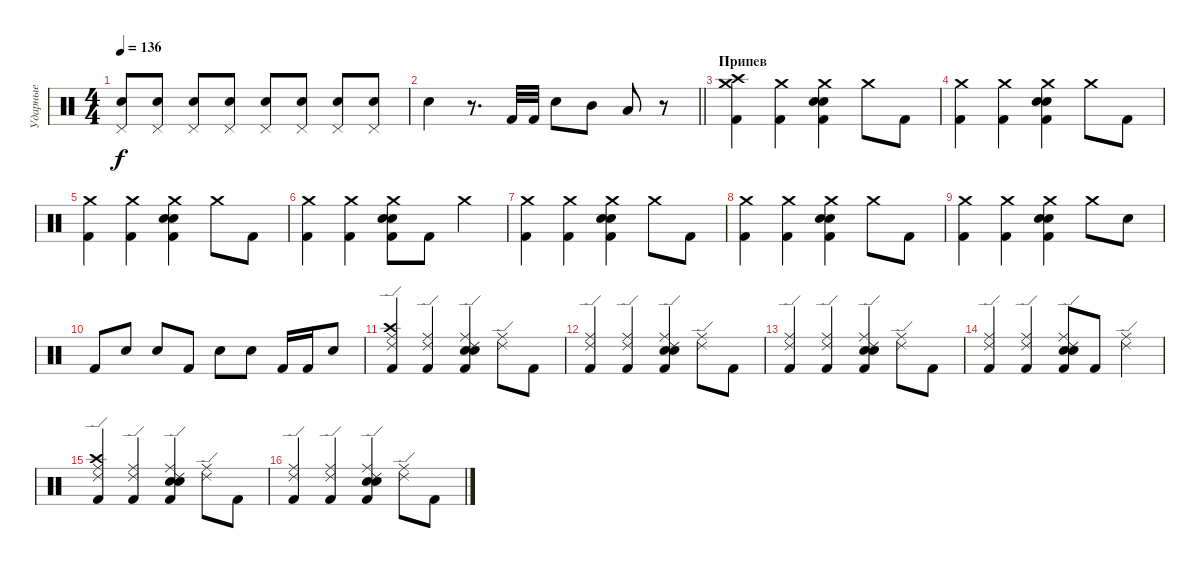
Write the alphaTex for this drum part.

\track ("Ударные" "Ударные") {instrument percussion}
\staff {score}
\articulation defaults
\ts (4 4)
\tempo 136
\clef neutral
\ks c
("Pedal Hi-Hat (hit)" "Electric Snare (hit)").8{dy f volume 16} ("Pedal Hi-Hat (hit)" "Electric Snare (hit)").8 ("Pedal Hi-Hat (hit)" "Electric Snare (hit)").8 ("Pedal Hi-Hat (hit)" "Electric Snare (hit)").8 ("Pedal Hi-Hat (hit)" "Electric Snare (hit)").8 ("Pedal Hi-Hat (hit)" "Electric Snare (hit)").8 ("Pedal Hi-Hat (hit)" "Electric Snare (hit)").8 ("Pedal Hi-Hat (hit)" "Electric Snare (hit)").8 |
\barLineRight lightlight "Electric Snare (hit)".4
r.8{d} "Kick (hit) 2".32 "Kick (hit) 2".32 "Snare (hit) 2".8 "Mid Tom (hit)".8 "Low Tom (hit)".8 r.8 |
\section ("" "Припев")
("Crash medium (hit)" "Crash high (hit)" "Kick (hit) 2").4 ("Crash medium (hit)" "Kick (hit) 2").4 ("Snare (hit) 2" "Crash medium (hit)" "Snare (hit) 2" "Kick (hit) 2").4 "Crash medium (hit)".8 "Kick (hit) 2".8 |
("Crash medium (hit)" "Kick (hit) 2").4 ("Crash medium (hit)" "Kick (hit) 2").4 ("Snare (hit) 2" "Crash medium (hit)" "Snare (hit) 2" "Kick (hit) 2").4 "Crash medium (hit)".8 "Kick (hit) 2".8 |
("Crash medium (hit)" "Kick (hit) 2").4 ("Crash medium (hit)" "Kick (hit) 2").4 ("Snare (hit) 2" "Crash medium (hit)" "Snare (hit) 2" "Kick (hit) 2").4 "Crash medium (hit)".8 "Kick (hit) 2".8 |
("Crash medium (hit)" "Kick (hit) 2").4 ("Crash medium (hit)" "Kick (hit) 2").4 ("Snare (hit) 2" "Crash medium (hit)" "Snare (hit) 2" "Kick (hit) 2").8 "Kick (hit) 2".8 "Crash medium (hit)".4 |
("Crash medium (hit)" "Kick (hit) 2").4 ("Crash medium (hit)" "Kick (hit) 2").4 ("Snare (hit) 2" "Crash medium (hit)" "Snare (hit) 2" "Kick (hit) 2").4 "Crash medium (hit)".8 "Kick (hit) 2".8 |
("Crash medium (hit)" "Kick (hit) 2").4 ("Crash medium (hit)" "Kick (hit) 2").4 ("Snare (hit) 2" "Crash medium (hit)" "Snare (hit) 2" "Kick (hit) 2").4 "Crash medium (hit)".8 "Kick (hit) 2".8 |
("Crash medium (hit)" "Kick (hit) 2").4 ("Crash medium (hit)" "Kick (hit) 2").4 ("Snare (hit) 2" "Crash medium (hit)" "Snare (hit) 2" "Kick (hit) 2").4 "Crash medium (hit)".8 "Snare (hit) 2".8 |
"Kick (hit) 2".8 "Snare (hit) 2".8 "Snare (hit) 2".8 "Kick (hit) 2".8 "Snare (hit) 2".8 "Snare (hit) 2".8 "Kick (hit) 2".16 "Kick (hit) 2".16 "Snare (hit) 2".8 |
("Ride (middle)" "Ride (edge) 2" "Crash high (hit)" "Kick (hit) 2").4 ("Ride (middle)" "Ride (edge) 2" "Kick (hit) 2").4 ("Ride (middle)" "Snare (hit) 2" "Ride (edge) 2" "Snare (hit) 2" "Kick (hit) 2").4 ("Ride (middle)" "Ride (edge) 2").8 "Kick (hit) 2".8 |
("Ride (middle)" "Ride (edge) 2" "Kick (hit) 2").4 ("Ride (middle)" "Ride (edge) 2" "Kick (hit) 2").4 ("Ride (middle)" "Snare (hit) 2" "Ride (edge) 2" "Snare (hit) 2" "Kick (hit) 2").4 ("Ride (middle)" "Ride (edge) 2").8 "Kick (hit) 2".8 |
("Ride (middle)" "Ride (edge) 2" "Kick (hit) 2").4 ("Ride (middle)" "Ride (edge) 2" "Kick (hit) 2").4 ("Ride (middle)" "Snare (hit) 2" "Ride (edge) 2" "Snare (hit) 2" "Kick (hit) 2").4 ("Ride (middle)" "Ride (edge) 2").8 "Kick (hit) 2".8 |
("Ride (middle)" "Ride (edge) 2" "Kick (hit) 2").4 ("Ride (middle)" "Ride (edge) 2" "Kick (hit) 2").4 ("Ride (middle)" "Snare (hit) 2" "Ride (edge) 2" "Snare (hit) 2" "Kick (hit) 2").8 "Kick (hit) 2".8 ("Ride (edge) 2" "Ride (middle)").4 |
("Ride (edge) 2" "Crash high (hit)" "Ride (middle)" "Kick (hit) 2").4 ("Ride (edge) 2" "Ride (middle)" "Kick (hit) 2").4 ("Ride (edge) 2" "Snare (hit) 2" "Ride (middle)" "Snare (hit) 2" "Kick (hit) 2").4 ("Ride (edge) 2" "Ride (middle)").8 "Kick (hit) 2".8 |
("Ride (edge) 2" "Ride (middle)" "Kick (hit) 2").4 ("Ride (edge) 2" "Ride (middle)" "Kick (hit) 2").4 ("Ride (edge) 2" "Snare (hit) 2" "Ride (middle)" "Snare (hit) 2" "Kick (hit) 2").4 ("Ride (edge) 2" "Ride (middle)").8 "Kick (hit) 2".8
